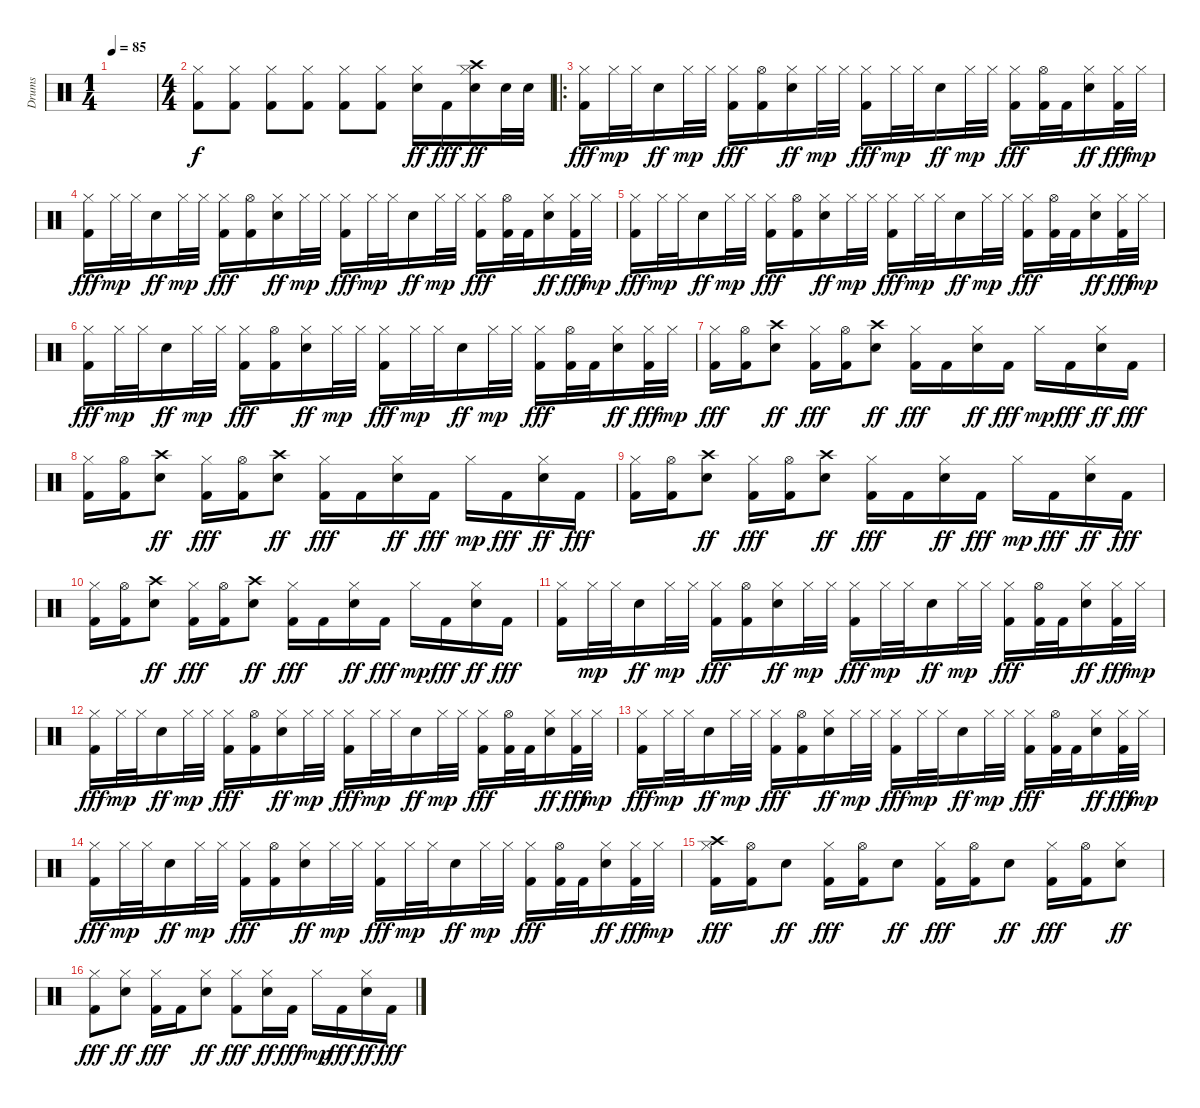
\track ("Drums" "Drums") {instrument percussion}
\staff {score}
\articulation defaults
\ts (1 4)
\tempo 85
\clef neutral
\ks c
|
\ts (4 4)
("Hi-Hat (closed)" "Kick (hit) 2").8 ("Hi-Hat (closed)" "Kick (hit) 2").8 ("Hi-Hat (closed)" "Kick (hit) 2").8 ("Hi-Hat (closed)" "Kick (hit) 2").8 ("Hi-Hat (closed)" "Kick (hit) 2").8 ("Hi-Hat (closed)" "Kick (hit) 2").8 ("Hi-Hat (closed)" "Snare (hit) 2").16{dy ff} "Kick (hit) 2".16{dy fff} ("Crash high (hit)" "Hi-Hat (closed)" "Snare (hit) 2").16{dy ff} "Snare (hit) 2".32 "Snare (hit) 2".32 |
\ro
\section ("" "")
("Hi-Hat (closed)" "Kick (hit) 2").16{dy fff} "Hi-Hat (closed)".32{dy mp} "Hi-Hat (closed)".32 "Snare (hit) 2".16{dy ff} "Hi-Hat (closed)".32{dy mp} "Hi-Hat (closed)".32 ("Hi-Hat (closed)" "Kick (hit) 2").16{dy fff} ("Hi-Hat (open)" "Kick (hit) 2").16 ("Hi-Hat (closed)" "Snare (hit) 2").16{dy ff} "Hi-Hat (closed)".32{dy mp} "Hi-Hat (closed)".32 ("Hi-Hat (closed)" "Kick (hit) 2").16{dy fff} "Hi-Hat (closed)".32{dy mp} "Hi-Hat (closed)".32 "Snare (hit) 2".16{dy ff} "Hi-Hat (closed)".32{dy mp} "Hi-Hat (closed)".32 ("Hi-Hat (closed)" "Kick (hit) 2").16{dy fff} ("Hi-Hat (open)" "Kick (hit) 2").32 "Kick (hit) 2".32 ("Hi-Hat (closed)" "Snare (hit) 2").16{dy ff} ("Hi-Hat (closed)" "Kick (hit) 2").32{dy fff} "Hi-Hat (closed)".32{dy mp} |
("Hi-Hat (closed)" "Kick (hit) 2").16{dy fff} "Hi-Hat (closed)".32{dy mp} "Hi-Hat (closed)".32 "Snare (hit) 2".16{dy ff} "Hi-Hat (closed)".32{dy mp} "Hi-Hat (closed)".32 ("Hi-Hat (closed)" "Kick (hit) 2").16{dy fff} ("Hi-Hat (open)" "Kick (hit) 2").16 ("Hi-Hat (closed)" "Snare (hit) 2").16{dy ff} "Hi-Hat (closed)".32{dy mp} "Hi-Hat (closed)".32 ("Hi-Hat (closed)" "Kick (hit) 2").16{dy fff} "Hi-Hat (closed)".32{dy mp} "Hi-Hat (closed)".32 "Snare (hit) 2".16{dy ff} "Hi-Hat (closed)".32{dy mp} "Hi-Hat (closed)".32 ("Hi-Hat (closed)" "Kick (hit) 2").16{dy fff} ("Hi-Hat (open)" "Kick (hit) 2").32 "Kick (hit) 2".32 ("Hi-Hat (closed)" "Snare (hit) 2").16{dy ff} ("Hi-Hat (closed)" "Kick (hit) 2").32{dy fff} "Hi-Hat (closed)".32{dy mp} |
("Hi-Hat (closed)" "Kick (hit) 2").16{dy fff} "Hi-Hat (closed)".32{dy mp} "Hi-Hat (closed)".32 "Snare (hit) 2".16{dy ff} "Hi-Hat (closed)".32{dy mp} "Hi-Hat (closed)".32 ("Hi-Hat (closed)" "Kick (hit) 2").16{dy fff} ("Hi-Hat (open)" "Kick (hit) 2").16 ("Hi-Hat (closed)" "Snare (hit) 2").16{dy ff} "Hi-Hat (closed)".32{dy mp} "Hi-Hat (closed)".32 ("Hi-Hat (closed)" "Kick (hit) 2").16{dy fff} "Hi-Hat (closed)".32{dy mp} "Hi-Hat (closed)".32 "Snare (hit) 2".16{dy ff} "Hi-Hat (closed)".32{dy mp} "Hi-Hat (closed)".32 ("Hi-Hat (closed)" "Kick (hit) 2").16{dy fff} ("Hi-Hat (open)" "Kick (hit) 2").32 "Kick (hit) 2".32 ("Hi-Hat (closed)" "Snare (hit) 2").16{dy ff} ("Hi-Hat (closed)" "Kick (hit) 2").32{dy fff} "Hi-Hat (closed)".32{dy mp} |
("Hi-Hat (closed)" "Kick (hit) 2").16{dy fff} "Hi-Hat (closed)".32{dy mp} "Hi-Hat (closed)".32 "Snare (hit) 2".16{dy ff} "Hi-Hat (closed)".32{dy mp} "Hi-Hat (closed)".32 ("Hi-Hat (closed)" "Kick (hit) 2").16{dy fff} ("Hi-Hat (open)" "Kick (hit) 2").16 ("Hi-Hat (closed)" "Snare (hit) 2").16{dy ff} "Hi-Hat (closed)".32{dy mp} "Hi-Hat (closed)".32 ("Hi-Hat (closed)" "Kick (hit) 2").16{dy fff} "Hi-Hat (closed)".32{dy mp} "Hi-Hat (closed)".32 "Snare (hit) 2".16{dy ff} "Hi-Hat (closed)".32{dy mp} "Hi-Hat (closed)".32 ("Hi-Hat (closed)" "Kick (hit) 2").16{dy fff} ("Hi-Hat (open)" "Kick (hit) 2").32 "Kick (hit) 2".32 ("Hi-Hat (closed)" "Snare (hit) 2").16{dy ff} ("Hi-Hat (closed)" "Kick (hit) 2").32{dy fff} "Hi-Hat (closed)".32{dy mp} |
\section ("" "")
("Hi-Hat (closed)" "Kick (hit) 2").16{dy fff} ("Hi-Hat (open)" "Kick (hit) 2").16 ("Crash high (hit)" "Snare (hit) 2").8{dy ff} ("Hi-Hat (closed)" "Kick (hit) 2").16{dy fff} ("Hi-Hat (open)" "Kick (hit) 2").16 ("Crash high (hit)" "Snare (hit) 2").8{dy ff} ("Hi-Hat (closed)" "Kick (hit) 2").16{dy fff} "Kick (hit) 2".16 ("Hi-Hat (closed)" "Snare (hit) 2").16{dy ff} "Kick (hit) 2".16{dy fff} "Hi-Hat (closed)".16{dy mp} "Kick (hit) 2".16{dy fff} ("Hi-Hat (closed)" "Snare (hit) 2").16{dy ff} "Kick (hit) 2".16{dy fff} |
("Hi-Hat (closed)" "Kick (hit) 2").16 ("Hi-Hat (open)" "Kick (hit) 2").16 ("Crash high (hit)" "Snare (hit) 2").8{dy ff} ("Hi-Hat (closed)" "Kick (hit) 2").16{dy fff} ("Hi-Hat (open)" "Kick (hit) 2").16 ("Crash high (hit)" "Snare (hit) 2").8{dy ff} ("Hi-Hat (closed)" "Kick (hit) 2").16{dy fff} "Kick (hit) 2".16 ("Hi-Hat (closed)" "Snare (hit) 2").16{dy ff} "Kick (hit) 2".16{dy fff} "Hi-Hat (closed)".16{dy mp} "Kick (hit) 2".16{dy fff} ("Hi-Hat (closed)" "Snare (hit) 2").16{dy ff} "Kick (hit) 2".16{dy fff} |
("Hi-Hat (closed)" "Kick (hit) 2").16 ("Hi-Hat (open)" "Kick (hit) 2").16 ("Crash high (hit)" "Snare (hit) 2").8{dy ff} ("Hi-Hat (closed)" "Kick (hit) 2").16{dy fff} ("Hi-Hat (open)" "Kick (hit) 2").16 ("Crash high (hit)" "Snare (hit) 2").8{dy ff} ("Hi-Hat (closed)" "Kick (hit) 2").16{dy fff} "Kick (hit) 2".16 ("Hi-Hat (closed)" "Snare (hit) 2").16{dy ff} "Kick (hit) 2".16{dy fff} "Hi-Hat (closed)".16{dy mp} "Kick (hit) 2".16{dy fff} ("Hi-Hat (closed)" "Snare (hit) 2").16{dy ff} "Kick (hit) 2".16{dy fff} |
("Hi-Hat (closed)" "Kick (hit) 2").16 ("Hi-Hat (open)" "Kick (hit) 2").16 ("Crash high (hit)" "Snare (hit) 2").8{dy ff} ("Hi-Hat (closed)" "Kick (hit) 2").16{dy fff} ("Hi-Hat (open)" "Kick (hit) 2").16 ("Crash high (hit)" "Snare (hit) 2").8{dy ff} ("Hi-Hat (closed)" "Kick (hit) 2").16{dy fff} "Kick (hit) 2".16 ("Hi-Hat (closed)" "Snare (hit) 2").16{dy ff} "Kick (hit) 2".16{dy fff} "Hi-Hat (closed)".16{dy mp} "Kick (hit) 2".16{dy fff} ("Hi-Hat (closed)" "Snare (hit) 2").16{dy ff} "Kick (hit) 2".16{dy fff} |
\section ("" "")
("Hi-Hat (closed)" "Kick (hit) 2").16 "Hi-Hat (closed)".32{dy mp} "Hi-Hat (closed)".32 "Snare (hit) 2".16{dy ff} "Hi-Hat (closed)".32{dy mp} "Hi-Hat (closed)".32 ("Hi-Hat (closed)" "Kick (hit) 2").16{dy fff} ("Hi-Hat (open)" "Kick (hit) 2").16 ("Hi-Hat (closed)" "Snare (hit) 2").16{dy ff} "Hi-Hat (closed)".32{dy mp} "Hi-Hat (closed)".32 ("Hi-Hat (closed)" "Kick (hit) 2").16{dy fff} "Hi-Hat (closed)".32{dy mp} "Hi-Hat (closed)".32 "Snare (hit) 2".16{dy ff} "Hi-Hat (closed)".32{dy mp} "Hi-Hat (closed)".32 ("Hi-Hat (closed)" "Kick (hit) 2").16{dy fff} ("Hi-Hat (open)" "Kick (hit) 2").32 "Kick (hit) 2".32 ("Hi-Hat (closed)" "Snare (hit) 2").16{dy ff} ("Hi-Hat (closed)" "Kick (hit) 2").32{dy fff} "Hi-Hat (closed)".32{dy mp} |
("Hi-Hat (closed)" "Kick (hit) 2").16{dy fff} "Hi-Hat (closed)".32{dy mp} "Hi-Hat (closed)".32 "Snare (hit) 2".16{dy ff} "Hi-Hat (closed)".32{dy mp} "Hi-Hat (closed)".32 ("Hi-Hat (closed)" "Kick (hit) 2").16{dy fff} ("Hi-Hat (open)" "Kick (hit) 2").16 ("Hi-Hat (closed)" "Snare (hit) 2").16{dy ff} "Hi-Hat (closed)".32{dy mp} "Hi-Hat (closed)".32 ("Hi-Hat (closed)" "Kick (hit) 2").16{dy fff} "Hi-Hat (closed)".32{dy mp} "Hi-Hat (closed)".32 "Snare (hit) 2".16{dy ff} "Hi-Hat (closed)".32{dy mp} "Hi-Hat (closed)".32 ("Hi-Hat (closed)" "Kick (hit) 2").16{dy fff} ("Hi-Hat (open)" "Kick (hit) 2").32 "Kick (hit) 2".32 ("Hi-Hat (closed)" "Snare (hit) 2").16{dy ff} ("Hi-Hat (closed)" "Kick (hit) 2").32{dy fff} "Hi-Hat (closed)".32{dy mp} |
("Hi-Hat (closed)" "Kick (hit) 2").16{dy fff} "Hi-Hat (closed)".32{dy mp} "Hi-Hat (closed)".32 "Snare (hit) 2".16{dy ff} "Hi-Hat (closed)".32{dy mp} "Hi-Hat (closed)".32 ("Hi-Hat (closed)" "Kick (hit) 2").16{dy fff} ("Hi-Hat (open)" "Kick (hit) 2").16 ("Hi-Hat (closed)" "Snare (hit) 2").16{dy ff} "Hi-Hat (closed)".32{dy mp} "Hi-Hat (closed)".32 ("Hi-Hat (closed)" "Kick (hit) 2").16{dy fff} "Hi-Hat (closed)".32{dy mp} "Hi-Hat (closed)".32 "Snare (hit) 2".16{dy ff} "Hi-Hat (closed)".32{dy mp} "Hi-Hat (closed)".32 ("Hi-Hat (closed)" "Kick (hit) 2").16{dy fff} ("Hi-Hat (open)" "Kick (hit) 2").32 "Kick (hit) 2".32 ("Hi-Hat (closed)" "Snare (hit) 2").16{dy ff} ("Hi-Hat (closed)" "Kick (hit) 2").32{dy fff} "Hi-Hat (closed)".32{dy mp} |
("Hi-Hat (closed)" "Kick (hit) 2").16{dy fff} "Hi-Hat (closed)".32{dy mp} "Hi-Hat (closed)".32 "Snare (hit) 2".16{dy ff} "Hi-Hat (closed)".32{dy mp} "Hi-Hat (closed)".32 ("Hi-Hat (closed)" "Kick (hit) 2").16{dy fff} ("Hi-Hat (open)" "Kick (hit) 2").16 ("Hi-Hat (closed)" "Snare (hit) 2").16{dy ff} "Hi-Hat (closed)".32{dy mp} "Hi-Hat (closed)".32 ("Hi-Hat (closed)" "Kick (hit) 2").16{dy fff} "Hi-Hat (closed)".32{dy mp} "Hi-Hat (closed)".32 "Snare (hit) 2".16{dy ff} "Hi-Hat (closed)".32{dy mp} "Hi-Hat (closed)".32 ("Hi-Hat (closed)" "Kick (hit) 2").16{dy fff} ("Hi-Hat (open)" "Kick (hit) 2").32 "Kick (hit) 2".32 ("Hi-Hat (closed)" "Snare (hit) 2").16{dy ff} ("Hi-Hat (closed)" "Kick (hit) 2").32{dy fff} "Hi-Hat (closed)".32{dy mp} |
\section ("" "")
("Crash high (hit)" "Hi-Hat (closed)" "Kick (hit) 2").16{dy fff} ("Hi-Hat (open)" "Kick (hit) 2").16 "Snare (hit) 2".8{dy ff} ("Hi-Hat (closed)" "Kick (hit) 2").16{dy fff} ("Hi-Hat (open)" "Kick (hit) 2").16 "Snare (hit) 2".8{dy ff} ("Hi-Hat (closed)" "Kick (hit) 2").16{dy fff} ("Hi-Hat (open)" "Kick (hit) 2").16 "Snare (hit) 2".8{dy ff} ("Hi-Hat (closed)" "Kick (hit) 2").16{dy fff} ("Hi-Hat (open)" "Kick (hit) 2").16 ("Hi-Hat (closed)" "Snare (hit) 2").8{dy ff} |
("Hi-Hat (closed)" "Kick (hit) 2").8{dy fff} ("Hi-Hat (closed)" "Snare (hit) 2").8{dy ff} ("Hi-Hat (closed)" "Kick (hit) 2").16{dy fff} "Kick (hit) 2".16 ("Hi-Hat (closed)" "Snare (hit) 2").8{dy ff} ("Hi-Hat (closed)" "Kick (hit) 2").8{dy fff} ("Hi-Hat (closed)" "Snare (hit) 2").16{dy ff} "Kick (hit) 2".16{dy fff} "Hi-Hat (closed)".16{dy mp} "Kick (hit) 2".16{dy fff} ("Hi-Hat (closed)" "Snare (hit) 2").16{dy ff} "Kick (hit) 2".16{dy fff}
